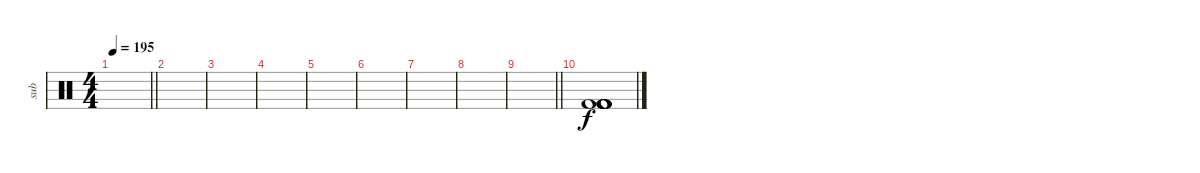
\track ("sub" "sub") {instrument percussion}
\staff {score}
\articulation defaults
\ts (4 4)
\tempo 195
\clef neutral
\barLineRight lightlight
\ks c
|
\section ("" "")
|
|
|
|
|
|
|
\barLineRight lightlight
|
\section ("" "")
("Kick (hit) 2" "Kick (hit) 2" "Kick (hit) 2" "Kick (hit) 2" "Kick (hit) 2" "Kick (hit) 2").1
